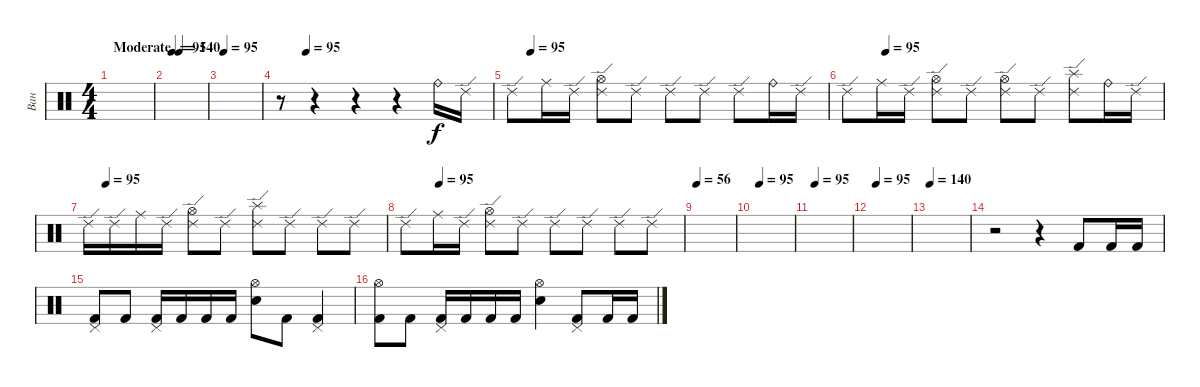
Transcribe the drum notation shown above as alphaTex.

\track ("Ван" "Ван") {instrument percussion}
\staff {score}
\articulation defaults
\ts (4 4)
\tempo (140 "Moderate")
\tempo 95
\tempo (140 "Moderate")
\clef neutral
\ks c
|
\tempo (95 0.125)
|
\tempo (95 0.0625)
|
\tempo (95 0.125)
r.8 r.4 r.4 r.4 "Ride (bell)".16 "Ride (edge) 2".16 |
\tempo (95 0.0625)
"Ride (edge) 2".8 "Ride (middle)".16 "Ride (edge) 2".16 ("Hi-Hat (open)" "Ride (edge) 2").8 "Ride (edge) 2".8 "Ride (edge) 2".8 "Ride (edge) 2".8 "Ride (edge) 2".8 "Ride (bell)".16 "Ride (edge) 2".16 |
\tempo (95 0.125)
"Ride (edge) 2".8 "Ride (middle)".16 "Ride (edge) 2".16 ("Hi-Hat (open)" "Ride (edge) 2").8 "Ride (edge) 2".8 ("Hi-Hat (open)" "Ride (edge) 2").8 "Ride (edge) 2".8 ("Splash (hit)" "Ride (edge) 2").8 "Ride (bell)".16 "Ride (edge) 2".16 |
\tempo (95 0.0625)
"Ride (edge) 2".16 "Ride (edge) 2".16 "Ride (middle)".16 "Ride (edge) 2".16 ("Hi-Hat (open)" "Ride (edge) 2").8 "Ride (edge) 2".8 ("Splash (hit)" "Ride (edge) 2").8 "Ride (edge) 2".8 "Ride (edge) 2".8 "Ride (edge) 2".8 |
\tempo (95 0.125)
"Ride (edge) 2".8 "Ride (middle)".16 "Ride (edge) 2".16 ("Hi-Hat (open)" "Ride (edge) 2").8 "Ride (edge) 2".8 "Ride (edge) 2".8 "Ride (edge) 2".8 "Ride (edge) 2".8 "Ride (edge) 2".8 |
\tempo 56
|
\tempo (95 0.125)
|
\tempo (95 0.0625)
|
\tempo (95 0.125)
|
\tempo 140
|
r.2 r.4 "Kick (hit) 2".8 "Kick (hit) 2".16 "Kick (hit) 2".16 |
("Pedal Hi-Hat (hit)" "Kick (hit) 2").8 "Kick (hit) 2".8 ("Pedal Hi-Hat (hit)" "Kick (hit) 2").16 "Kick (hit) 2".16 "Kick (hit) 2".16 "Kick (hit) 2".16 ("Hi-Hat (open)" "Snare (hit) 2").8 "Kick (hit) 2".8 ("Pedal Hi-Hat (hit)" "Kick (hit) 2").4 |
("Hi-Hat (open)" "Kick (hit) 2").8 "Kick (hit) 2".8 ("Pedal Hi-Hat (hit)" "Kick (hit) 2").16 "Kick (hit) 2".16 "Kick (hit) 2".16 "Kick (hit) 2".16 ("Hi-Hat (open)" "Snare (hit) 2").4 ("Pedal Hi-Hat (hit)" "Kick (hit) 2").8 "Kick (hit) 2".16 "Kick (hit) 2".16
